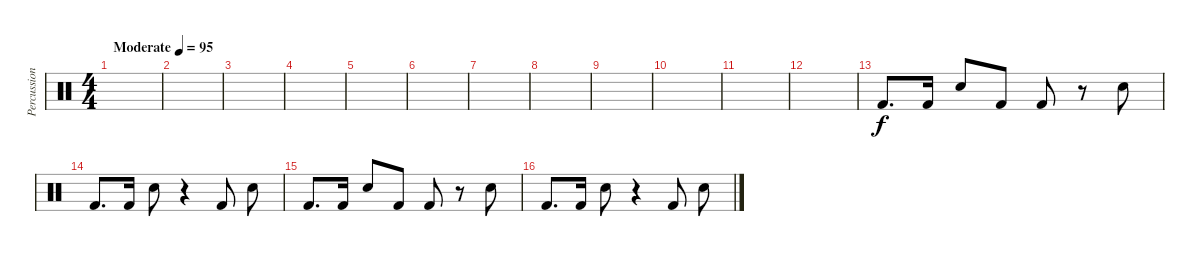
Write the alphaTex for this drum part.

\track ("Percussion" "Percussion") {instrument percussion}
\staff {score}
\articulation defaults
\ts (4 4)
\tempo (95 "Moderate")
\clef neutral
\ks c
|
|
|
|
|
|
|
|
|
|
|
|
"Kick (hit) 2".8{d} "Kick (hit) 2".16 "Snare (hit) 2".8 "Kick (hit) 2".8 "Kick (hit) 2".8 r.8 "Snare (hit) 2".8 |
"Kick (hit) 2".8{d} "Kick (hit) 2".16 "Snare (hit) 2".8 r.4 "Kick (hit) 2".8 "Snare (hit) 2".8 |
"Kick (hit) 2".8{d} "Kick (hit) 2".16 "Snare (hit) 2".8 "Kick (hit) 2".8 "Kick (hit) 2".8 r.8 "Snare (hit) 2".8 |
"Kick (hit) 2".8{d} "Kick (hit) 2".16 "Snare (hit) 2".8 r.4 "Kick (hit) 2".8 "Snare (hit) 2".8
